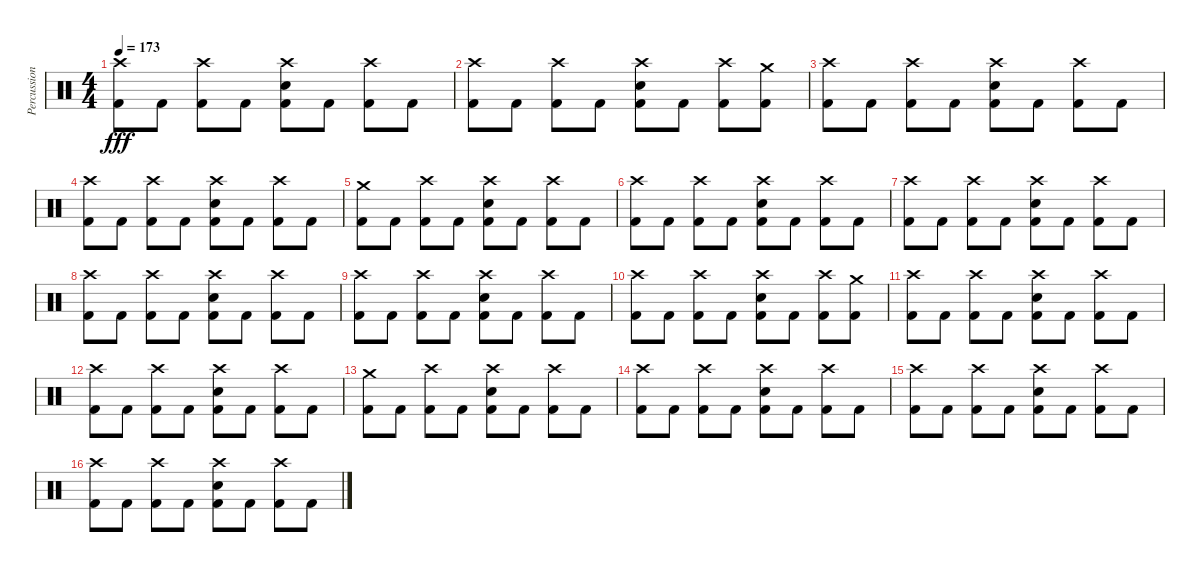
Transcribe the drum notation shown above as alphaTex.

\track ("Percussion" "Percussion") {instrument percussion}
\staff {score}
\articulation defaults
\ts (4 4)
\tempo 173
\clef neutral
\ks c
("Crash high (hit)" "Kick (hit) 2").8{dy fff} "Kick (hit) 2".8 ("Crash high (hit)" "Kick (hit) 2").8 "Kick (hit) 2".8 ("Crash high (hit)" "Electric Snare (hit)" "Kick (hit) 2").8 "Kick (hit) 2".8 ("Crash high (hit)" "Kick (hit) 2").8 "Kick (hit) 2".8 |
("Crash high (hit)" "Kick (hit) 2").8 "Kick (hit) 2".8 ("Crash high (hit)" "Kick (hit) 2").8 "Kick (hit) 2".8 ("Crash high (hit)" "Electric Snare (hit)" "Kick (hit) 2").8 "Kick (hit) 2".8 ("Crash high (hit)" "Kick (hit) 2").8 ("Crash medium (hit)" "Kick (hit) 2").8 |
("Crash high (hit)" "Kick (hit) 2").8 "Kick (hit) 2".8 ("Crash high (hit)" "Kick (hit) 2").8 "Kick (hit) 2".8 ("Crash high (hit)" "Electric Snare (hit)" "Kick (hit) 2").8 "Kick (hit) 2".8 ("Crash high (hit)" "Kick (hit) 2").8 "Kick (hit) 2".8 |
("Crash high (hit)" "Kick (hit) 2").8 "Kick (hit) 2".8 ("Crash high (hit)" "Kick (hit) 2").8 "Kick (hit) 2".8 ("Crash high (hit)" "Electric Snare (hit)" "Kick (hit) 2").8 "Kick (hit) 2".8 ("Crash high (hit)" "Kick (hit) 2").8 "Kick (hit) 2".8 |
("Crash medium (hit)" "Kick (hit) 2").8 "Kick (hit) 2".8 ("Crash high (hit)" "Kick (hit) 2").8 "Kick (hit) 2".8 ("Crash high (hit)" "Electric Snare (hit)" "Kick (hit) 2").8 "Kick (hit) 2".8 ("Crash high (hit)" "Kick (hit) 2").8 "Kick (hit) 2".8 |
("Crash high (hit)" "Kick (hit) 2").8 "Kick (hit) 2".8 ("Crash high (hit)" "Kick (hit) 2").8 "Kick (hit) 2".8 ("Crash high (hit)" "Electric Snare (hit)" "Kick (hit) 2").8 "Kick (hit) 2".8 ("Crash high (hit)" "Kick (hit) 2").8 "Kick (hit) 2".8 |
("Crash high (hit)" "Kick (hit) 2").8 "Kick (hit) 2".8 ("Crash high (hit)" "Kick (hit) 2").8 "Kick (hit) 2".8 ("Crash high (hit)" "Electric Snare (hit)" "Kick (hit) 2").8 "Kick (hit) 2".8 ("Crash high (hit)" "Kick (hit) 2").8 "Kick (hit) 2".8 |
("Crash high (hit)" "Kick (hit) 2").8 "Kick (hit) 2".8 ("Crash high (hit)" "Kick (hit) 2").8 "Kick (hit) 2".8 ("Crash high (hit)" "Electric Snare (hit)" "Kick (hit) 2").8 "Kick (hit) 2".8 ("Crash high (hit)" "Kick (hit) 2").8 "Kick (hit) 2".8 |
("Crash high (hit)" "Kick (hit) 2").8 "Kick (hit) 2".8 ("Crash high (hit)" "Kick (hit) 2").8 "Kick (hit) 2".8 ("Crash high (hit)" "Electric Snare (hit)" "Kick (hit) 2").8 "Kick (hit) 2".8 ("Crash high (hit)" "Kick (hit) 2").8 "Kick (hit) 2".8 |
("Crash high (hit)" "Kick (hit) 2").8 "Kick (hit) 2".8 ("Crash high (hit)" "Kick (hit) 2").8 "Kick (hit) 2".8 ("Crash high (hit)" "Electric Snare (hit)" "Kick (hit) 2").8 "Kick (hit) 2".8 ("Crash high (hit)" "Kick (hit) 2").8 ("Crash medium (hit)" "Kick (hit) 2").8 |
("Crash high (hit)" "Kick (hit) 2").8 "Kick (hit) 2".8 ("Crash high (hit)" "Kick (hit) 2").8 "Kick (hit) 2".8 ("Crash high (hit)" "Electric Snare (hit)" "Kick (hit) 2").8 "Kick (hit) 2".8 ("Crash high (hit)" "Kick (hit) 2").8 "Kick (hit) 2".8 |
("Crash high (hit)" "Kick (hit) 2").8 "Kick (hit) 2".8 ("Crash high (hit)" "Kick (hit) 2").8 "Kick (hit) 2".8 ("Crash high (hit)" "Electric Snare (hit)" "Kick (hit) 2").8 "Kick (hit) 2".8 ("Crash high (hit)" "Kick (hit) 2").8 "Kick (hit) 2".8 |
("Crash medium (hit)" "Kick (hit) 2").8 "Kick (hit) 2".8 ("Crash high (hit)" "Kick (hit) 2").8 "Kick (hit) 2".8 ("Crash high (hit)" "Electric Snare (hit)" "Kick (hit) 2").8 "Kick (hit) 2".8 ("Crash high (hit)" "Kick (hit) 2").8 "Kick (hit) 2".8 |
("Crash high (hit)" "Kick (hit) 2").8 "Kick (hit) 2".8 ("Crash high (hit)" "Kick (hit) 2").8 "Kick (hit) 2".8 ("Crash high (hit)" "Electric Snare (hit)" "Kick (hit) 2").8 "Kick (hit) 2".8 ("Crash high (hit)" "Kick (hit) 2").8 "Kick (hit) 2".8 |
("Crash high (hit)" "Kick (hit) 2").8 "Kick (hit) 2".8 ("Crash high (hit)" "Kick (hit) 2").8 "Kick (hit) 2".8 ("Crash high (hit)" "Electric Snare (hit)" "Kick (hit) 2").8 "Kick (hit) 2".8 ("Crash high (hit)" "Kick (hit) 2").8 "Kick (hit) 2".8 |
("Crash high (hit)" "Kick (hit) 2").8 "Kick (hit) 2".8 ("Crash high (hit)" "Kick (hit) 2").8 "Kick (hit) 2".8 ("Crash high (hit)" "Electric Snare (hit)" "Kick (hit) 2").8 "Kick (hit) 2".8 ("Crash high (hit)" "Kick (hit) 2").8 "Kick (hit) 2".8
